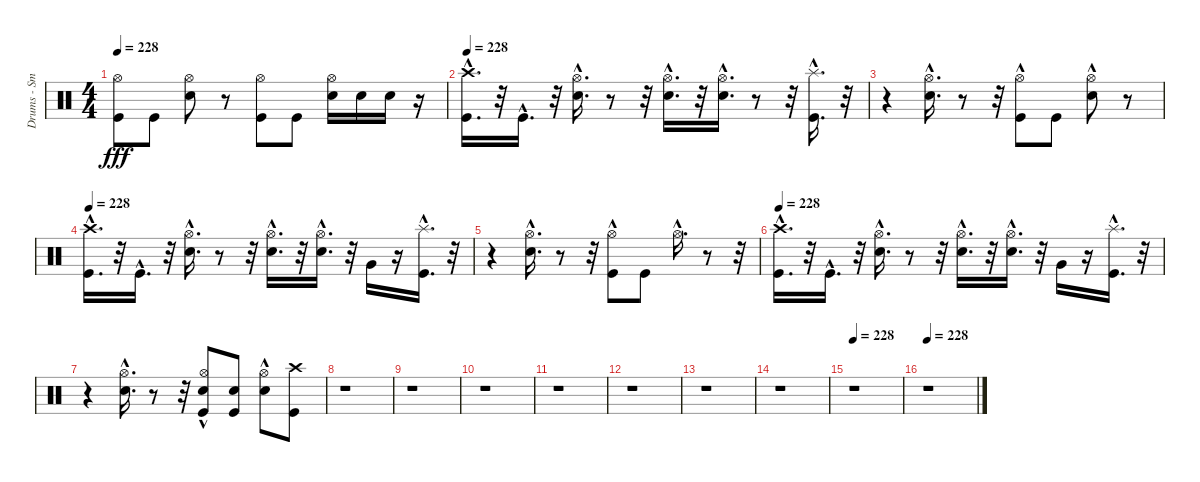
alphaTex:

\track ("Drums - Smelly" "Drums - Sm") {instrument percussion}
\staff {score}
\articulation defaults
\ts (4 4)
\tempo 228
\clef neutral
\ks c
("Kick (hit)" "Hi-Hat (open)").8{dy fff} "Kick (hit)".8 ("Electric Snare (hit)" "Hi-Hat (open)").8 r.8 ("Kick (hit)" "Hi-Hat (open)").8 "Kick (hit)".8 ("Electric Snare (hit)" "Hi-Hat (open)").16 "Electric Snare (hit)".16 "Electric Snare (hit)".16 r.16 |
\tempo 228
("Kick (hit)"{hac} "Crash high (hit)"{hac}).16{d} r.32 "Kick (hit)"{hac}.16{d} r.32 ("Electric Snare (hit)"{hac} "Hi-Hat (open)"{hac}).16{d} r.8 r.32 ("Electric Snare (hit)"{hac} "Hi-Hat (open)"{hac}).16{d} r.32 ("Hi-Hat (open)"{hac} "Electric Snare (hit)"{hac}).16{d} r.8 r.32 ("Splash (hit)"{hac} "Kick (hit)"{hac}).16{d} r.32 |
r.4 ("Electric Snare (hit)"{hac} "Hi-Hat (open)"{hac}).16{d} r.8 r.32 ("Kick (hit)" "Hi-Hat (open)"{hac}).8 "Kick (hit)".8 ("Electric Snare (hit)" "Hi-Hat (open)"{hac}).8 r.8 |
\tempo 228
("Kick (hit)"{hac} "Crash high (hit)"{hac}).16{d} r.32 "Kick (hit)"{hac}.16{d} r.32 ("Electric Snare (hit)"{hac} "Hi-Hat (open)"{hac}).16{d} r.8 r.32 ("Electric Snare (hit)"{hac} "Hi-Hat (open)"{hac}).16{d} r.32 ("Hi-Hat (open)"{hac} "Electric Snare (hit)"{hac}).16{d} r.32 "Very Low Tom (hit)".16 r.16 ("Splash (hit)"{hac} "Kick (hit)"{hac}).16{d} r.32 |
r.4 ("Electric Snare (hit)"{hac} "Hi-Hat (open)"{hac}).16{d} r.8 r.32 ("Kick (hit)" "Hi-Hat (open)"{hac}).8 "Kick (hit)".8 "Hi-Hat (open)"{hac}.16{d} r.8 r.32 |
\tempo 228
("Kick (hit)"{hac} "Crash high (hit)"{hac}).16{d} r.32 "Kick (hit)"{hac}.16{d} r.32 ("Electric Snare (hit)"{hac} "Hi-Hat (open)"{hac}).16{d} r.8 r.32 ("Electric Snare (hit)"{hac} "Hi-Hat (open)"{hac}).16{d} r.32 ("Hi-Hat (open)"{hac} "Electric Snare (hit)"{hac}).16{d} r.32 "Very Low Tom (hit)".16 r.16 ("Splash (hit)"{hac} "Kick (hit)"{hac}).16{d} r.32 |
r.4 ("Electric Snare (hit)"{hac} "Hi-Hat (open)"{hac}).16{d} r.8 r.32 ("Kick (hit)" "Hi-Hat (open)"{hac} "Electric Snare (hit)").8 ("Electric Snare (hit)" "Kick (hit)").8 ("Electric Snare (hit)" "Hi-Hat (open)"{hac}).8 ("Crash high (hit)" "Kick (hit)").8 |
r.1 |
r.1 |
r.1 |
r.1 |
r.1 |
r.1 |
r.1 |
\tempo 228
r.1 |
\tempo 228
r.1
